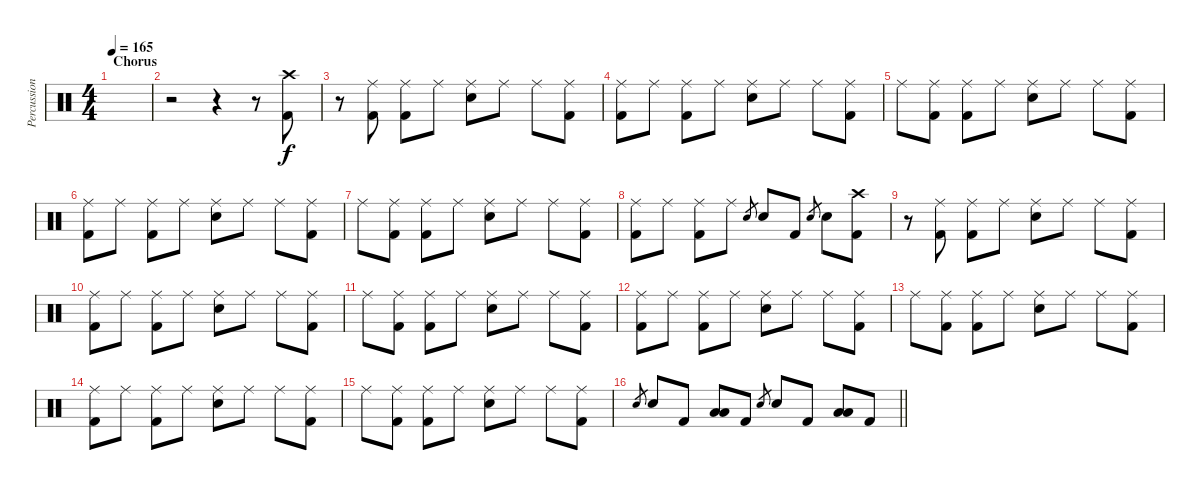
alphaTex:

\track ("Percussion" "Percussion") {instrument percussion}
\staff {score}
\articulation defaults
\ts (4 4)
\section ("" "Chorus")
\tempo 165
\clef neutral
\ks c
|
r.2 r.4 r.8 ("Crash high (hit)" "Kick (hit) 2").8 |
r.8 ("Ride (middle)" "Kick (hit) 2").8 ("Ride (middle)" "Kick (hit) 2").8 "Ride (middle)".8 ("Ride (middle)" "Electric Snare (hit)").8 "Ride (middle)".8 "Ride (middle)".8 ("Ride (middle)" "Kick (hit) 2").8 |
("Ride (middle)" "Kick (hit) 2").8 "Ride (middle)".8 ("Ride (middle)" "Kick (hit) 2").8 "Ride (middle)".8 ("Ride (middle)" "Electric Snare (hit)").8 "Ride (middle)".8 "Ride (middle)".8 ("Ride (middle)" "Kick (hit) 2").8 |
"Ride (middle)".8 ("Ride (middle)" "Kick (hit) 2").8 ("Ride (middle)" "Kick (hit) 2").8 "Ride (middle)".8 ("Ride (middle)" "Electric Snare (hit)").8 "Ride (middle)".8 "Ride (middle)".8 ("Ride (middle)" "Kick (hit) 2").8 |
("Ride (middle)" "Kick (hit) 2").8 "Ride (middle)".8 ("Ride (middle)" "Kick (hit) 2").8 "Ride (middle)".8 ("Ride (middle)" "Electric Snare (hit)").8 "Ride (middle)".8 "Ride (middle)".8 ("Ride (middle)" "Kick (hit) 2").8 |
"Ride (middle)".8 ("Ride (middle)" "Kick (hit) 2").8 ("Ride (middle)" "Kick (hit) 2").8 "Ride (middle)".8 ("Ride (middle)" "Electric Snare (hit)").8 "Ride (middle)".8 "Ride (middle)".8 ("Ride (middle)" "Kick (hit) 2").8 |
("Ride (middle)" "Kick (hit) 2").8 "Ride (middle)".8 ("Ride (middle)" "Kick (hit) 2").8 "Ride (middle)".8 "Electric Snare (hit)".8{gr} "Electric Snare (hit)".8 "Kick (hit) 2".8 "Electric Snare (hit)".8{gr} "Electric Snare (hit)".8 ("Crash high (hit)" "Kick (hit) 2").8 |
r.8 ("Ride (middle)" "Kick (hit) 2").8 ("Ride (middle)" "Kick (hit) 2").8 "Ride (middle)".8 ("Ride (middle)" "Electric Snare (hit)").8 "Ride (middle)".8 "Ride (middle)".8 ("Ride (middle)" "Kick (hit) 2").8 |
("Ride (middle)" "Kick (hit) 2").8 "Ride (middle)".8 ("Ride (middle)" "Kick (hit) 2").8 "Ride (middle)".8 ("Ride (middle)" "Electric Snare (hit)").8 "Ride (middle)".8 "Ride (middle)".8 ("Ride (middle)" "Kick (hit) 2").8 |
"Ride (middle)".8 ("Ride (middle)" "Kick (hit) 2").8 ("Ride (middle)" "Kick (hit) 2").8 "Ride (middle)".8 ("Ride (middle)" "Electric Snare (hit)").8 "Ride (middle)".8 "Ride (middle)".8 ("Ride (middle)" "Kick (hit) 2").8 |
("Ride (middle)" "Kick (hit) 2").8 "Ride (middle)".8 ("Ride (middle)" "Kick (hit) 2").8 "Ride (middle)".8 ("Ride (middle)" "Electric Snare (hit)").8 "Ride (middle)".8 "Ride (middle)".8 ("Ride (middle)" "Kick (hit) 2").8 |
"Ride (middle)".8 ("Ride (middle)" "Kick (hit) 2").8 ("Ride (middle)" "Kick (hit) 2").8 "Ride (middle)".8 ("Ride (middle)" "Electric Snare (hit)").8 "Ride (middle)".8 "Ride (middle)".8 ("Ride (middle)" "Kick (hit) 2").8 |
("Ride (middle)" "Kick (hit) 2").8 "Ride (middle)".8 ("Ride (middle)" "Kick (hit) 2").8 "Ride (middle)".8 ("Ride (middle)" "Electric Snare (hit)").8 "Ride (middle)".8 "Ride (middle)".8 ("Ride (middle)" "Kick (hit) 2").8 |
"Ride (middle)".8 ("Ride (middle)" "Kick (hit) 2").8 ("Ride (middle)" "Kick (hit) 2").8 "Ride (middle)".8 ("Ride (middle)" "Electric Snare (hit)").8 "Ride (middle)".8 "Ride (middle)".8 ("Ride (middle)" "Kick (hit) 2").8 |
\barLineRight lightlight "Electric Snare (hit)".8{gr} "Electric Snare (hit)".8 "Kick (hit) 2".8
("Low Tom (hit)" "Low Floor Tom (hit)").8 "Kick (hit) 2".8 "Electric Snare (hit)".8{gr} "Electric Snare (hit)".8 "Kick (hit) 2".8 ("Low Tom (hit)" "Low Floor Tom (hit)").8 "Kick (hit) 2".8
